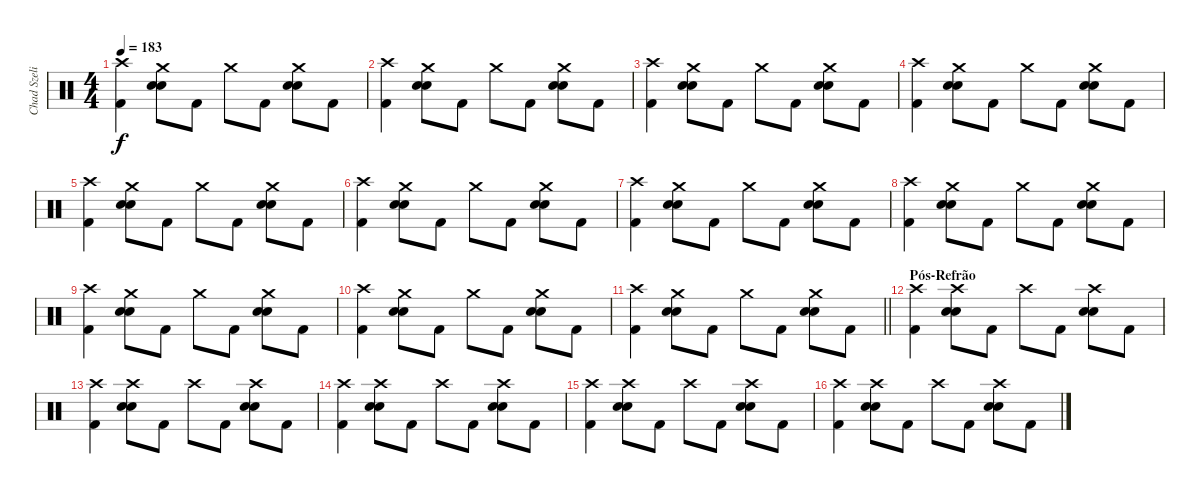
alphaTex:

\track ("Chad Szeliga" "Chad Szeli") {instrument percussion}
\staff {score}
\articulation defaults
\ts (4 4)
\tempo 183
\clef neutral
\ks c
("Crash high (hit)" "Kick (hit) 2").4{dy f} ("Crash medium (hit)" "Snare (hit) 2" "Snare (hit) 2").8 "Kick (hit) 2".8 "Crash medium (hit)".8 "Kick (hit) 2".8 ("Crash medium (hit)" "Snare (hit) 2" "Snare (hit) 2").8 "Kick (hit) 2".8 |
("Crash high (hit)" "Kick (hit) 2").4 ("Crash medium (hit)" "Snare (hit) 2" "Snare (hit) 2").8 "Kick (hit) 2".8 "Crash medium (hit)".8 "Kick (hit) 2".8 ("Crash medium (hit)" "Snare (hit) 2" "Snare (hit) 2").8 "Kick (hit) 2".8 |
("Crash high (hit)" "Kick (hit) 2").4 ("Crash medium (hit)" "Snare (hit) 2" "Snare (hit) 2").8 "Kick (hit) 2".8 "Crash medium (hit)".8 "Kick (hit) 2".8 ("Crash medium (hit)" "Snare (hit) 2" "Snare (hit) 2").8 "Kick (hit) 2".8 |
("Crash high (hit)" "Kick (hit) 2").4 ("Crash medium (hit)" "Snare (hit) 2" "Snare (hit) 2").8 "Kick (hit) 2".8 "Crash medium (hit)".8 "Kick (hit) 2".8 ("Crash medium (hit)" "Snare (hit) 2" "Snare (hit) 2").8 "Kick (hit) 2".8 |
("Crash high (hit)" "Kick (hit) 2").4 ("Crash medium (hit)" "Snare (hit) 2" "Snare (hit) 2").8 "Kick (hit) 2".8 "Crash medium (hit)".8 "Kick (hit) 2".8 ("Crash medium (hit)" "Snare (hit) 2" "Snare (hit) 2").8 "Kick (hit) 2".8 |
("Crash high (hit)" "Kick (hit) 2").4 ("Crash medium (hit)" "Snare (hit) 2" "Snare (hit) 2").8 "Kick (hit) 2".8 "Crash medium (hit)".8 "Kick (hit) 2".8 ("Crash medium (hit)" "Snare (hit) 2" "Snare (hit) 2").8 "Kick (hit) 2".8 |
("Crash high (hit)" "Kick (hit) 2").4 ("Crash medium (hit)" "Snare (hit) 2" "Snare (hit) 2").8 "Kick (hit) 2".8 "Crash medium (hit)".8 "Kick (hit) 2".8 ("Crash medium (hit)" "Snare (hit) 2" "Snare (hit) 2").8 "Kick (hit) 2".8 |
("Crash high (hit)" "Kick (hit) 2").4 ("Crash medium (hit)" "Snare (hit) 2" "Snare (hit) 2").8 "Kick (hit) 2".8 "Crash medium (hit)".8 "Kick (hit) 2".8 ("Crash medium (hit)" "Snare (hit) 2" "Snare (hit) 2").8 "Kick (hit) 2".8 |
("Crash high (hit)" "Kick (hit) 2").4 ("Crash medium (hit)" "Snare (hit) 2" "Snare (hit) 2").8 "Kick (hit) 2".8 "Crash medium (hit)".8 "Kick (hit) 2".8 ("Crash medium (hit)" "Snare (hit) 2" "Snare (hit) 2").8 "Kick (hit) 2".8 |
("Crash high (hit)" "Kick (hit) 2").4 ("Crash medium (hit)" "Snare (hit) 2" "Snare (hit) 2").8 "Kick (hit) 2".8 "Crash medium (hit)".8 "Kick (hit) 2".8 ("Crash medium (hit)" "Snare (hit) 2" "Snare (hit) 2").8 "Kick (hit) 2".8 |
\barLineRight lightlight
("Crash high (hit)" "Kick (hit) 2").4 ("Crash medium (hit)" "Snare (hit) 2" "Snare (hit) 2").8 "Kick (hit) 2".8 "Crash medium (hit)".8 "Kick (hit) 2".8 ("Crash medium (hit)" "Snare (hit) 2" "Snare (hit) 2").8 "Kick (hit) 2".8 |
\section ("" "Pós-Refrão")
("Crash high (hit)" "Kick (hit) 2").4 ("Crash high (hit)" "Snare (hit) 2" "Snare (hit) 2").8 "Kick (hit) 2".8 "Crash high (hit)".8 "Kick (hit) 2".8 ("Crash high (hit)" "Snare (hit) 2" "Snare (hit) 2").8 "Kick (hit) 2".8 |
("Crash high (hit)" "Kick (hit) 2").4 ("Crash high (hit)" "Snare (hit) 2" "Snare (hit) 2").8 "Kick (hit) 2".8 "Crash high (hit)".8 "Kick (hit) 2".8 ("Crash high (hit)" "Snare (hit) 2" "Snare (hit) 2").8 "Kick (hit) 2".8 |
("Crash high (hit)" "Kick (hit) 2").4 ("Crash high (hit)" "Snare (hit) 2" "Snare (hit) 2").8 "Kick (hit) 2".8 "Crash high (hit)".8 "Kick (hit) 2".8 ("Crash high (hit)" "Snare (hit) 2" "Snare (hit) 2").8 "Kick (hit) 2".8 |
("Crash high (hit)" "Kick (hit) 2").4 ("Crash high (hit)" "Snare (hit) 2" "Snare (hit) 2").8 "Kick (hit) 2".8 "Crash high (hit)".8 "Kick (hit) 2".8 ("Crash high (hit)" "Snare (hit) 2" "Snare (hit) 2").8 "Kick (hit) 2".8 |
("Crash high (hit)" "Kick (hit) 2").4 ("Crash high (hit)" "Snare (hit) 2" "Snare (hit) 2").8 "Kick (hit) 2".8 "Crash high (hit)".8 "Kick (hit) 2".8 ("Crash high (hit)" "Snare (hit) 2" "Snare (hit) 2").8 "Kick (hit) 2".8
